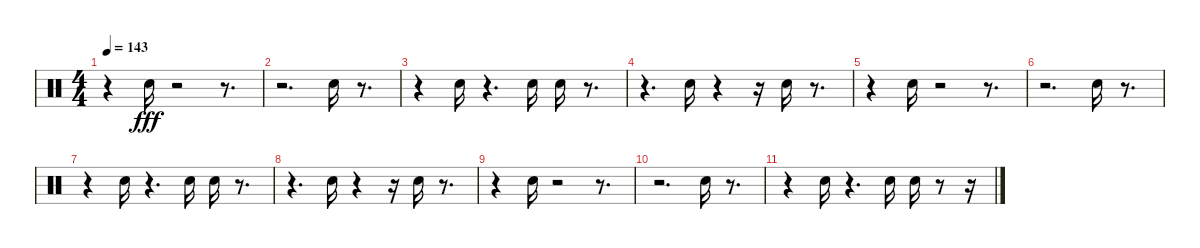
\track "" {instrument percussion}
\staff {score}
\articulation defaults
\ts (4 4)
\tempo 143
\clef neutral
\ks c
r.4{dy fff} "Snare (hit) 2".16 r.2 r.8{d} |
r.2{d} "Snare (hit) 2".16 r.8{d} |
r.4 "Snare (hit) 2".16 r.4{d} "Snare (hit) 2".16 "Snare (hit) 2".16 r.8{d} |
r.4{d} "Snare (hit) 2".16 r.4 r.16 "Snare (hit) 2".16 r.8{d} |
r.4 "Snare (hit) 2".16 r.2 r.8{d} |
r.2{d} "Snare (hit) 2".16 r.8{d} |
r.4 "Snare (hit) 2".16 r.4{d} "Snare (hit) 2".16 "Snare (hit) 2".16 r.8{d} |
r.4{d} "Snare (hit) 2".16 r.4 r.16 "Snare (hit) 2".16 r.8{d} |
r.4 "Snare (hit) 2".16 r.2 r.8{d} |
r.2{d} "Snare (hit) 2".16 r.8{d} |
r.4 "Snare (hit) 2".16 r.4{d} "Snare (hit) 2".16 "Snare (hit) 2".16 r.8 r.16
